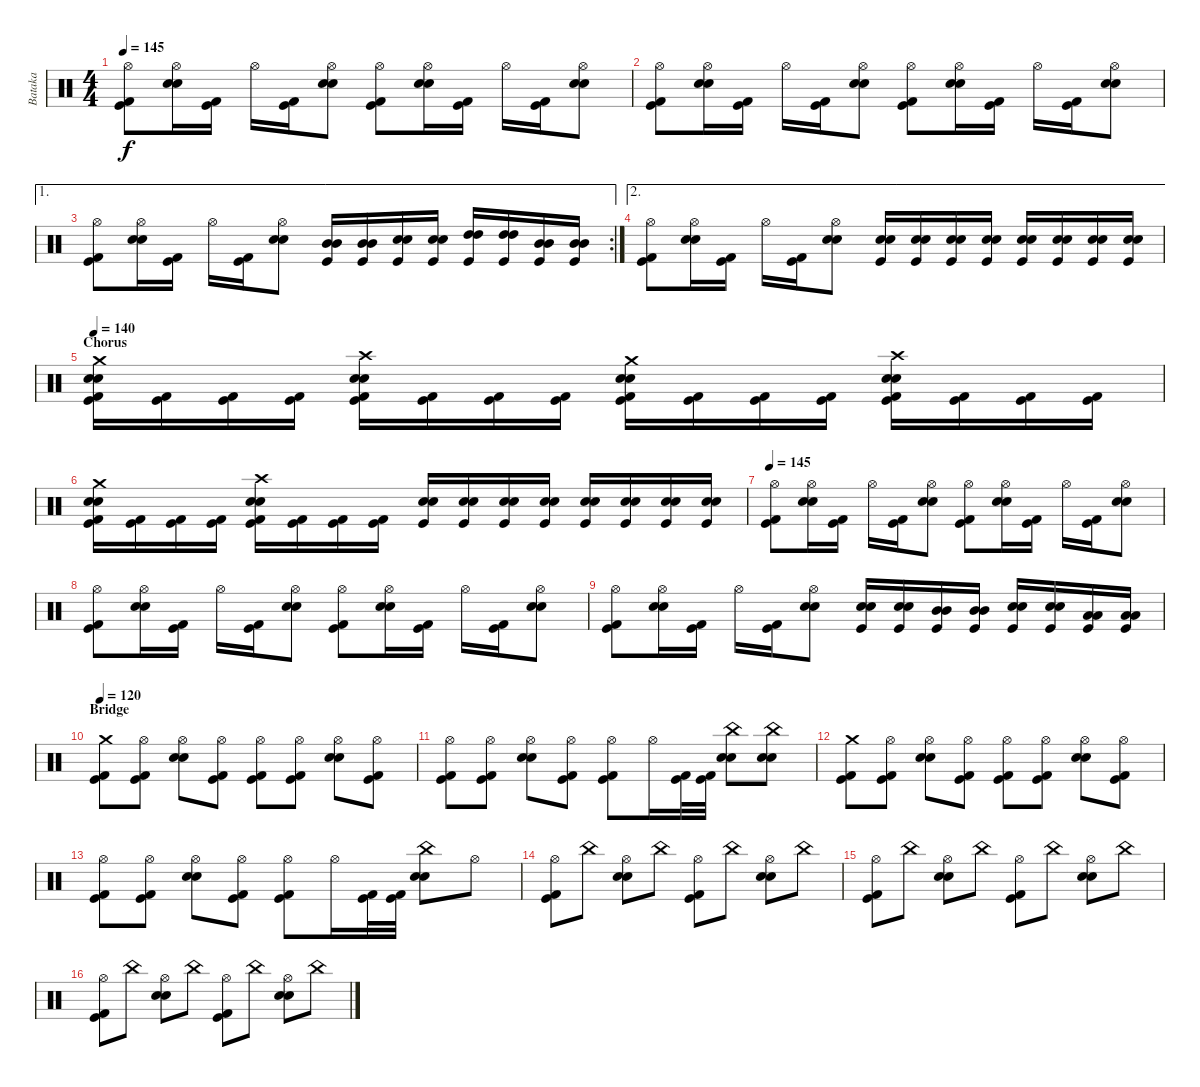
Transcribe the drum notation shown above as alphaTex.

\track ("Bataka" "Bataka") {instrument percussion}
\staff {score}
\articulation defaults
\ts (4 4)
\tempo 145
\clef neutral
\ks c
("Hi-Hat (open)" "Kick (hit) 2" "Kick (hit)").8{dy f} ("Hi-Hat (open)" "Snare (hit) 2" "Snare (hit) 2").16 ("Kick (hit) 2" "Kick (hit)").16 "Hi-Hat (open)".16 ("Kick (hit) 2" "Kick (hit)").16 ("Hi-Hat (open)" "Snare (hit) 2" "Snare (hit) 2").8 ("Hi-Hat (open)" "Kick (hit) 2" "Kick (hit)").8 ("Hi-Hat (open)" "Snare (hit) 2" "Snare (hit) 2").16 ("Kick (hit) 2" "Kick (hit)").16 "Hi-Hat (open)".16 ("Kick (hit) 2" "Kick (hit)").16 ("Hi-Hat (open)" "Snare (hit) 2" "Snare (hit) 2").8 |
("Hi-Hat (open)" "Kick (hit) 2" "Kick (hit)").8 ("Hi-Hat (open)" "Snare (hit) 2" "Snare (hit) 2").16 ("Kick (hit) 2" "Kick (hit)").16 "Hi-Hat (open)".16 ("Kick (hit) 2" "Kick (hit)").16 ("Hi-Hat (open)" "Snare (hit) 2" "Snare (hit) 2").8 ("Hi-Hat (open)" "Kick (hit) 2" "Kick (hit)").8 ("Hi-Hat (open)" "Snare (hit) 2" "Snare (hit) 2").16 ("Kick (hit) 2" "Kick (hit)").16 "Hi-Hat (open)".16 ("Kick (hit) 2" "Kick (hit)").16 ("Hi-Hat (open)" "Snare (hit) 2" "Snare (hit) 2").8 |
\ae 1
\rc 2
("Hi-Hat (open)" "Kick (hit) 2" "Kick (hit)").8 ("Hi-Hat (open)" "Snare (hit) 2" "Snare (hit) 2").16 ("Kick (hit) 2" "Kick (hit)").16 "Hi-Hat (open)".16 ("Kick (hit) 2" "Kick (hit)").16 ("Hi-Hat (open)" "Snare (hit) 2" "Snare (hit) 2").8 ("Mid Tom (hit)" "Mid Tom (hit)" "Kick (hit)").16 ("Mid Tom (hit)" "Mid Tom (hit)" "Kick (hit)").16 ("Snare (hit) 2" "Snare (hit) 2" "Kick (hit)").16 ("Snare (hit) 2" "Snare (hit) 2" "Kick (hit)").16 ("High Tom (hit)" "High Tom (hit)" "Kick (hit)").16 ("High Tom (hit)" "High Tom (hit)" "Kick (hit)").16 ("Mid Tom (hit)" "Mid Tom (hit)" "Kick (hit)").16 ("Mid Tom (hit)" "Mid Tom (hit)" "Kick (hit)").16 |
\ae 2
("Hi-Hat (open)" "Kick (hit) 2" "Kick (hit)").8 ("Hi-Hat (open)" "Snare (hit) 2" "Snare (hit) 2").16 ("Kick (hit) 2" "Kick (hit)").16 "Hi-Hat (open)".16 ("Kick (hit) 2" "Kick (hit)").16 ("Hi-Hat (open)" "Snare (hit) 2" "Snare (hit) 2").8 ("Snare (hit) 2" "Snare (hit) 2" "Kick (hit)").16 ("Snare (hit) 2" "Snare (hit) 2" "Kick (hit)").16 ("Snare (hit) 2" "Snare (hit) 2" "Kick (hit)").16 ("Snare (hit) 2" "Snare (hit) 2" "Kick (hit)").16 ("Snare (hit) 2" "Snare (hit) 2" "Kick (hit)").16 ("Snare (hit) 2" "Snare (hit) 2" "Kick (hit)").16 ("Snare (hit) 2" "Snare (hit) 2" "Kick (hit)").16 ("Snare (hit) 2" "Snare (hit) 2" "Kick (hit)").16 |
\section ("" "Chorus")
\tempo 140
("Crash medium (hit)" "Snare (hit) 2" "Snare (hit) 2" "Kick (hit) 2" "Kick (hit)").16 ("Kick (hit) 2" "Kick (hit)").16 ("Kick (hit) 2" "Kick (hit)").16 ("Kick (hit) 2" "Kick (hit)").16 ("Crash high (hit)" "Snare (hit) 2" "Snare (hit) 2" "Kick (hit) 2" "Kick (hit)").16 ("Kick (hit) 2" "Kick (hit)").16 ("Kick (hit) 2" "Kick (hit)").16 ("Kick (hit) 2" "Kick (hit)").16 ("Crash medium (hit)" "Snare (hit) 2" "Snare (hit) 2" "Kick (hit) 2" "Kick (hit)").16 ("Kick (hit) 2" "Kick (hit)").16 ("Kick (hit) 2" "Kick (hit)").16 ("Kick (hit) 2" "Kick (hit)").16 ("Crash high (hit)" "Snare (hit) 2" "Snare (hit) 2" "Kick (hit) 2" "Kick (hit)").16 ("Kick (hit) 2" "Kick (hit)").16 ("Kick (hit) 2" "Kick (hit)").16 ("Kick (hit) 2" "Kick (hit)").16 |
("Crash medium (hit)" "Snare (hit) 2" "Snare (hit) 2" "Kick (hit) 2" "Kick (hit)").16 ("Kick (hit) 2" "Kick (hit)").16 ("Kick (hit) 2" "Kick (hit)").16 ("Kick (hit) 2" "Kick (hit)").16 ("Crash high (hit)" "Snare (hit) 2" "Snare (hit) 2" "Kick (hit) 2" "Kick (hit)").16 ("Kick (hit) 2" "Kick (hit)").16 ("Kick (hit) 2" "Kick (hit)").16 ("Kick (hit) 2" "Kick (hit)").16 ("Snare (hit) 2" "Snare (hit) 2" "Kick (hit)").16 ("Snare (hit) 2" "Snare (hit) 2" "Kick (hit)").16 ("Snare (hit) 2" "Snare (hit) 2" "Kick (hit)").16 ("Snare (hit) 2" "Snare (hit) 2" "Kick (hit)").16 ("Snare (hit) 2" "Snare (hit) 2" "Kick (hit)").16 ("Snare (hit) 2" "Snare (hit) 2" "Kick (hit)").16 ("Snare (hit) 2" "Snare (hit) 2" "Kick (hit)").16 ("Snare (hit) 2" "Snare (hit) 2" "Kick (hit)").16 |
\tempo 145
("Hi-Hat (open)" "Kick (hit) 2" "Kick (hit)").8 ("Hi-Hat (open)" "Snare (hit) 2" "Snare (hit) 2").16 ("Kick (hit) 2" "Kick (hit)").16 "Hi-Hat (open)".16 ("Kick (hit) 2" "Kick (hit)").16 ("Hi-Hat (open)" "Snare (hit) 2" "Snare (hit) 2").8 ("Hi-Hat (open)" "Kick (hit) 2" "Kick (hit)").8 ("Hi-Hat (open)" "Snare (hit) 2" "Snare (hit) 2").16 ("Kick (hit) 2" "Kick (hit)").16 "Hi-Hat (open)".16 ("Kick (hit) 2" "Kick (hit)").16 ("Hi-Hat (open)" "Snare (hit) 2" "Snare (hit) 2").8 |
("Hi-Hat (open)" "Kick (hit) 2" "Kick (hit)").8 ("Hi-Hat (open)" "Snare (hit) 2" "Snare (hit) 2").16 ("Kick (hit) 2" "Kick (hit)").16 "Hi-Hat (open)".16 ("Kick (hit) 2" "Kick (hit)").16 ("Hi-Hat (open)" "Snare (hit) 2" "Snare (hit) 2").8 ("Hi-Hat (open)" "Kick (hit) 2" "Kick (hit)").8 ("Hi-Hat (open)" "Snare (hit) 2" "Snare (hit) 2").16 ("Kick (hit) 2" "Kick (hit)").16 "Hi-Hat (open)".16 ("Kick (hit) 2" "Kick (hit)").16 ("Hi-Hat (open)" "Snare (hit) 2" "Snare (hit) 2").8 |
("Hi-Hat (open)" "Kick (hit) 2" "Kick (hit)").8 ("Hi-Hat (open)" "Snare (hit) 2" "Snare (hit) 2").16 ("Kick (hit) 2" "Kick (hit)").16 "Hi-Hat (open)".16 ("Kick (hit) 2" "Kick (hit)").16 ("Hi-Hat (open)" "Snare (hit) 2" "Snare (hit) 2").8 ("Snare (hit) 2" "Snare (hit) 2" "Kick (hit)").16 ("Snare (hit) 2" "Snare (hit) 2" "Kick (hit)").16 ("Mid Tom (hit)" "Mid Tom (hit)" "Kick (hit)").16 ("Mid Tom (hit)" "Mid Tom (hit)" "Kick (hit)").16 ("Snare (hit) 2" "Snare (hit) 2" "Kick (hit)").16 ("Snare (hit) 2" "Snare (hit) 2" "Kick (hit)").16 ("Low Tom (hit)" "Low Tom (hit)" "Kick (hit)").16 ("Low Tom (hit)" "Low Tom (hit)" "Kick (hit)").16 |
\section ("" "Bridge")
\tempo 120
("Crash medium (hit)" "Kick (hit) 2" "Kick (hit)").8 ("Hi-Hat (open)" "Kick (hit) 2" "Kick (hit)").8 ("Hi-Hat (open)" "Snare (hit) 2" "Snare (hit) 2").8 ("Hi-Hat (open)" "Kick (hit) 2" "Kick (hit)").8 ("Hi-Hat (open)" "Kick (hit) 2" "Kick (hit)").8 ("Hi-Hat (open)" "Kick (hit) 2" "Kick (hit)").8 ("Hi-Hat (open)" "Snare (hit) 2" "Snare (hit) 2").8 ("Hi-Hat (open)" "Kick (hit) 2" "Kick (hit)").8 |
("Hi-Hat (open)" "Kick (hit) 2" "Kick (hit)").8 ("Hi-Hat (open)" "Kick (hit) 2" "Kick (hit)").8 ("Hi-Hat (open)" "Snare (hit) 2" "Snare (hit) 2").8 ("Hi-Hat (open)" "Kick (hit) 2" "Kick (hit)").8 ("Hi-Hat (open)" "Kick (hit) 2" "Kick (hit)").8 "Hi-Hat (open)".16 ("Kick (hit) 2" "Kick (hit)").32 ("Kick (hit) 2" "Kick (hit)").32 ("China (hit)" "Snare (hit) 2" "Snare (hit) 2").8 ("China (hit)" "Snare (hit) 2" "Snare (hit) 2").8 |
("Crash medium (hit)" "Kick (hit) 2" "Kick (hit)").8 ("Hi-Hat (open)" "Kick (hit) 2" "Kick (hit)").8 ("Hi-Hat (open)" "Snare (hit) 2" "Snare (hit) 2").8 ("Hi-Hat (open)" "Kick (hit) 2" "Kick (hit)").8 ("Hi-Hat (open)" "Kick (hit) 2" "Kick (hit)").8 ("Hi-Hat (open)" "Kick (hit) 2" "Kick (hit)").8 ("Hi-Hat (open)" "Snare (hit) 2" "Snare (hit) 2").8 ("Hi-Hat (open)" "Kick (hit) 2" "Kick (hit)").8 |
("Hi-Hat (open)" "Kick (hit) 2" "Kick (hit)").8 ("Hi-Hat (open)" "Kick (hit) 2" "Kick (hit)").8 ("Hi-Hat (open)" "Snare (hit) 2" "Snare (hit) 2").8 ("Hi-Hat (open)" "Kick (hit) 2" "Kick (hit)").8 ("Hi-Hat (open)" "Kick (hit) 2" "Kick (hit)").8 "Hi-Hat (open)".16 ("Kick (hit) 2" "Kick (hit)").32 ("Kick (hit) 2" "Kick (hit)").32 ("China (hit)" "Snare (hit) 2" "Snare (hit) 2").8 "Hi-Hat (open)".8 |
("Hi-Hat (open)" "Kick (hit) 2" "Kick (hit)").8 "China (hit)".8 ("Hi-Hat (open)" "Snare (hit) 2" "Snare (hit) 2").8 "China (hit)".8 ("Hi-Hat (open)" "Kick (hit) 2" "Kick (hit)").8 "China (hit)".8 ("Hi-Hat (open)" "Snare (hit) 2" "Snare (hit) 2").8 "China (hit)".8 |
("Hi-Hat (open)" "Kick (hit) 2" "Kick (hit)").8 "China (hit)".8 ("Hi-Hat (open)" "Snare (hit) 2" "Snare (hit) 2").8 "China (hit)".8 ("Hi-Hat (open)" "Kick (hit) 2" "Kick (hit)").8 "China (hit)".8 ("Hi-Hat (open)" "Snare (hit) 2" "Snare (hit) 2").8 "China (hit)".8 |
("Hi-Hat (open)" "Kick (hit) 2" "Kick (hit)").8 "China (hit)".8 ("Hi-Hat (open)" "Snare (hit) 2" "Snare (hit) 2").8 "China (hit)".8 ("Hi-Hat (open)" "Kick (hit) 2" "Kick (hit)").8 "China (hit)".8 ("Hi-Hat (open)" "Snare (hit) 2" "Snare (hit) 2").8 "China (hit)".8
